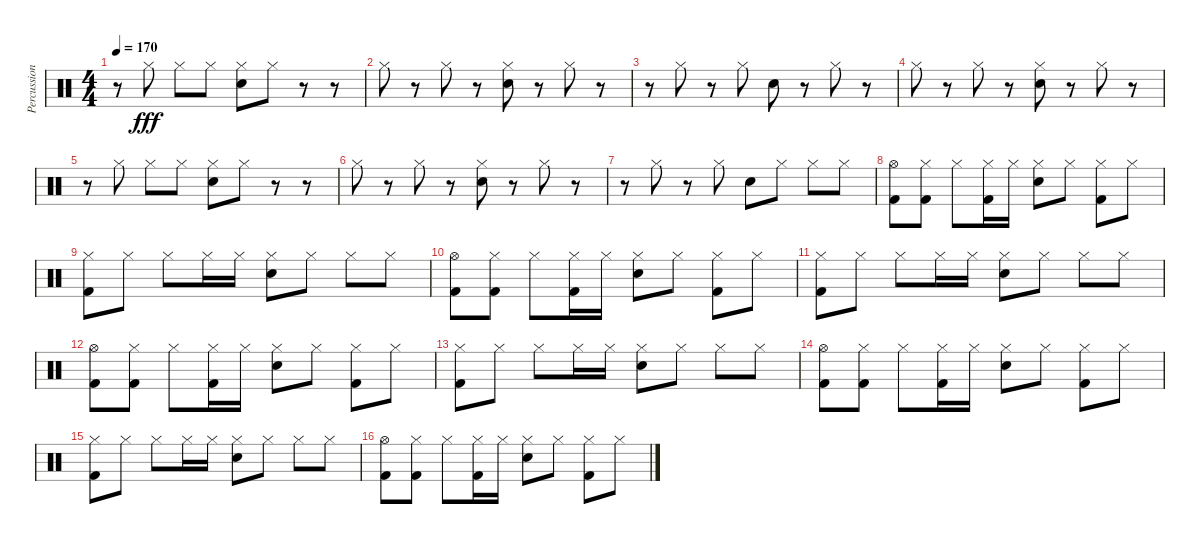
\track ("Percussion" "Percussion") {instrument percussion}
\staff {score}
\articulation defaults
\ts (4 4)
\tempo 170
\clef neutral
\ks c
r.8{dy fff} "Hi-Hat (closed)".8 "Hi-Hat (closed)".8 "Hi-Hat (closed)".8 ("Hi-Hat (closed)" "Snare (hit) 2").8 "Hi-Hat (closed)".8 r.8 r.8 |
"Hi-Hat (closed)".8 r.8 "Hi-Hat (closed)".8 r.8 ("Hi-Hat (closed)" "Snare (hit) 2").8 r.8 "Hi-Hat (closed)".8 r.8 |
r.8 "Hi-Hat (closed)".8 r.8 "Hi-Hat (closed)".8 "Snare (hit) 2".8 r.8 "Hi-Hat (closed)".8 r.8 |
"Hi-Hat (closed)".8 r.8 "Hi-Hat (closed)".8 r.8 ("Hi-Hat (closed)" "Snare (hit) 2").8 r.8 "Hi-Hat (closed)".8 r.8 |
r.8 "Hi-Hat (closed)".8 "Hi-Hat (closed)".8 "Hi-Hat (closed)".8 ("Hi-Hat (closed)" "Snare (hit) 2").8 "Hi-Hat (closed)".8 r.8 r.8 |
"Hi-Hat (closed)".8 r.8 "Hi-Hat (closed)".8 r.8 ("Hi-Hat (closed)" "Snare (hit) 2").8 r.8 "Hi-Hat (closed)".8 r.8 |
r.8 "Hi-Hat (closed)".8 r.8 "Hi-Hat (closed)".8 "Snare (hit) 2".8 "Hi-Hat (closed)".8 "Hi-Hat (closed)".8 "Hi-Hat (closed)".8 |
("Hi-Hat (open)" "Kick (hit) 2").8 ("Hi-Hat (closed)" "Kick (hit) 2").8 "Hi-Hat (closed)".8 ("Hi-Hat (closed)" "Kick (hit) 2").16 "Hi-Hat (closed)".16 ("Hi-Hat (closed)" "Electric Snare (hit)").8 "Hi-Hat (closed)".8 ("Hi-Hat (closed)" "Kick (hit) 2").8 "Hi-Hat (closed)".8 |
("Hi-Hat (closed)" "Kick (hit) 2").8 "Hi-Hat (closed)".8 "Hi-Hat (closed)".8 "Hi-Hat (closed)".16 "Hi-Hat (closed)".16 ("Hi-Hat (closed)" "Electric Snare (hit)").8 "Hi-Hat (closed)".8 "Hi-Hat (closed)".8 "Hi-Hat (closed)".8 |
("Hi-Hat (open)" "Kick (hit) 2").8 ("Hi-Hat (closed)" "Kick (hit) 2").8 "Hi-Hat (closed)".8 ("Hi-Hat (closed)" "Kick (hit) 2").16 "Hi-Hat (closed)".16 ("Hi-Hat (closed)" "Electric Snare (hit)").8 "Hi-Hat (closed)".8 ("Hi-Hat (closed)" "Kick (hit) 2").8 "Hi-Hat (closed)".8 |
("Hi-Hat (closed)" "Kick (hit) 2").8 "Hi-Hat (closed)".8 "Hi-Hat (closed)".8 "Hi-Hat (closed)".16 "Hi-Hat (closed)".16 ("Hi-Hat (closed)" "Electric Snare (hit)").8 "Hi-Hat (closed)".8 "Hi-Hat (closed)".8 "Hi-Hat (closed)".8 |
("Hi-Hat (open)" "Kick (hit) 2").8 ("Hi-Hat (closed)" "Kick (hit) 2").8 "Hi-Hat (closed)".8 ("Hi-Hat (closed)" "Kick (hit) 2").16 "Hi-Hat (closed)".16 ("Hi-Hat (closed)" "Electric Snare (hit)").8 "Hi-Hat (closed)".8 ("Hi-Hat (closed)" "Kick (hit) 2").8 "Hi-Hat (closed)".8 |
("Hi-Hat (closed)" "Kick (hit) 2").8 "Hi-Hat (closed)".8 "Hi-Hat (closed)".8 "Hi-Hat (closed)".16 "Hi-Hat (closed)".16 ("Hi-Hat (closed)" "Electric Snare (hit)").8 "Hi-Hat (closed)".8 "Hi-Hat (closed)".8 "Hi-Hat (closed)".8 |
("Hi-Hat (open)" "Kick (hit) 2").8 ("Hi-Hat (closed)" "Kick (hit) 2").8 "Hi-Hat (closed)".8 ("Hi-Hat (closed)" "Kick (hit) 2").16 "Hi-Hat (closed)".16 ("Hi-Hat (closed)" "Electric Snare (hit)").8 "Hi-Hat (closed)".8 ("Hi-Hat (closed)" "Kick (hit) 2").8 "Hi-Hat (closed)".8 |
("Hi-Hat (closed)" "Kick (hit) 2").8 "Hi-Hat (closed)".8 "Hi-Hat (closed)".8 "Hi-Hat (closed)".16 "Hi-Hat (closed)".16 ("Hi-Hat (closed)" "Electric Snare (hit)").8 "Hi-Hat (closed)".8 "Hi-Hat (closed)".8 "Hi-Hat (closed)".8 |
("Hi-Hat (open)" "Kick (hit) 2").8 ("Hi-Hat (closed)" "Kick (hit) 2").8 "Hi-Hat (closed)".8 ("Hi-Hat (closed)" "Kick (hit) 2").16 "Hi-Hat (closed)".16 ("Hi-Hat (closed)" "Electric Snare (hit)").8 "Hi-Hat (closed)".8 ("Hi-Hat (closed)" "Kick (hit) 2").8 "Hi-Hat (closed)".8
